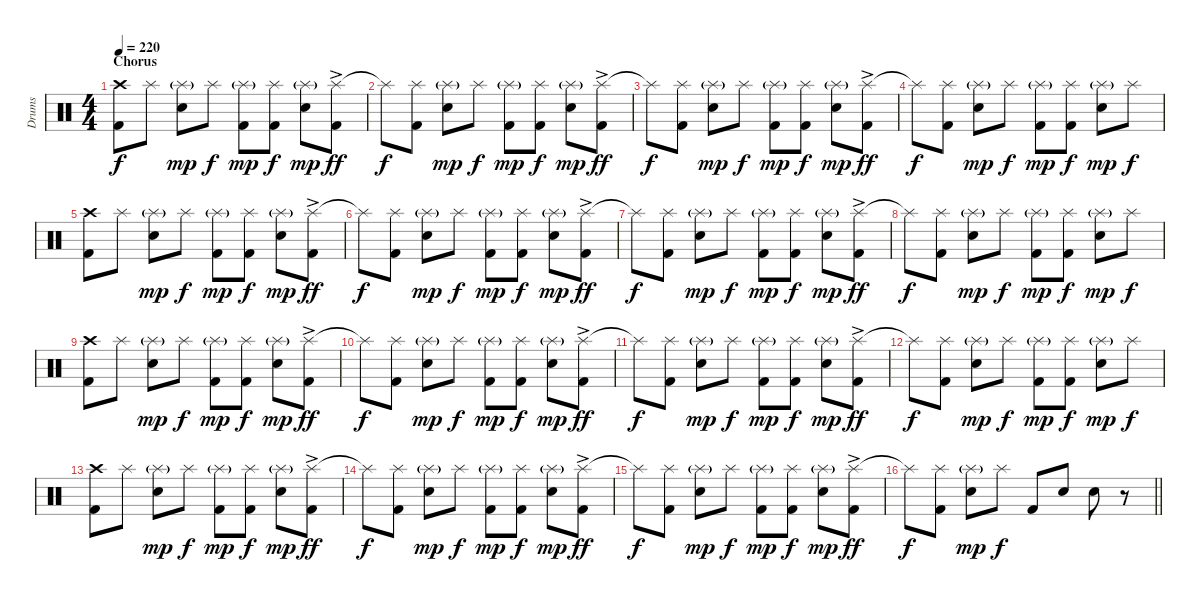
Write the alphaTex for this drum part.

\track ("Drums" "Drums") {instrument percussion}
\staff {score}
\articulation defaults
\ts (4 4)
\section ("" "Chorus")
\tempo 220
\clef neutral
\ks c
("Crash high (hit)" "Kick (hit) 2").8{dy f} "Splash (hit)".8 ("Splash (hit)"{g} "Electric Snare (hit)").8{dy mp} "Splash (hit)".8{dy f} ("Splash (hit)"{g} "Kick (hit) 2").8{dy mp} ("Splash (hit)" "Kick (hit) 2").8{dy f} ("Splash (hit)"{g} "Electric Snare (hit)").8{dy mp} ("Splash (hit)"{ac} "Kick (hit) 2").8{dy ff} |
"Splash (hit)"{t}.8{dy f} ("Splash (hit)" "Kick (hit) 2").8 ("Splash (hit)"{g} "Electric Snare (hit)").8{dy mp} "Splash (hit)".8{dy f} ("Splash (hit)"{g} "Kick (hit) 2").8{dy mp} ("Splash (hit)" "Kick (hit) 2").8{dy f} ("Splash (hit)"{g} "Electric Snare (hit)").8{dy mp} ("Splash (hit)"{ac} "Kick (hit) 2").8{dy ff} |
"Splash (hit)"{t}.8{dy f} ("Splash (hit)" "Kick (hit) 2").8 ("Splash (hit)"{g} "Electric Snare (hit)").8{dy mp} "Splash (hit)".8{dy f} ("Splash (hit)"{g} "Kick (hit) 2").8{dy mp} ("Splash (hit)" "Kick (hit) 2").8{dy f} ("Splash (hit)"{g} "Electric Snare (hit)").8{dy mp} ("Splash (hit)"{ac} "Kick (hit) 2").8{dy ff} |
"Splash (hit)"{t}.8{dy f} ("Splash (hit)" "Kick (hit) 2").8 ("Splash (hit)"{g} "Electric Snare (hit)").8{dy mp} "Splash (hit)".8{dy f} ("Splash (hit)"{g} "Kick (hit) 2").8{dy mp} ("Splash (hit)" "Kick (hit) 2").8{dy f} ("Splash (hit)"{g} "Electric Snare (hit)").8{dy mp} "Splash (hit)".8{dy f} |
("Crash high (hit)" "Kick (hit) 2").8 "Splash (hit)".8 ("Splash (hit)"{g} "Electric Snare (hit)").8{dy mp} "Splash (hit)".8{dy f} ("Splash (hit)"{g} "Kick (hit) 2").8{dy mp} ("Splash (hit)" "Kick (hit) 2").8{dy f} ("Splash (hit)"{g} "Electric Snare (hit)").8{dy mp} ("Splash (hit)"{ac} "Kick (hit) 2").8{dy ff} |
"Splash (hit)"{t}.8{dy f} ("Splash (hit)" "Kick (hit) 2").8 ("Splash (hit)"{g} "Electric Snare (hit)").8{dy mp} "Splash (hit)".8{dy f} ("Splash (hit)"{g} "Kick (hit) 2").8{dy mp} ("Splash (hit)" "Kick (hit) 2").8{dy f} ("Splash (hit)"{g} "Electric Snare (hit)").8{dy mp} ("Splash (hit)"{ac} "Kick (hit) 2").8{dy ff} |
"Splash (hit)"{t}.8{dy f} ("Splash (hit)" "Kick (hit) 2").8 ("Splash (hit)"{g} "Electric Snare (hit)").8{dy mp} "Splash (hit)".8{dy f} ("Splash (hit)"{g} "Kick (hit) 2").8{dy mp} ("Splash (hit)" "Kick (hit) 2").8{dy f} ("Splash (hit)"{g} "Electric Snare (hit)").8{dy mp} ("Splash (hit)"{ac} "Kick (hit) 2").8{dy ff} |
"Splash (hit)"{t}.8{dy f} ("Splash (hit)" "Kick (hit) 2").8 ("Splash (hit)"{g} "Electric Snare (hit)").8{dy mp} "Splash (hit)".8{dy f} ("Splash (hit)"{g} "Kick (hit) 2").8{dy mp} ("Splash (hit)" "Kick (hit) 2").8{dy f} ("Splash (hit)"{g} "Electric Snare (hit)").8{dy mp} "Splash (hit)".8{dy f} |
("Crash high (hit)" "Kick (hit) 2").8 "Splash (hit)".8 ("Splash (hit)"{g} "Electric Snare (hit)").8{dy mp} "Splash (hit)".8{dy f} ("Splash (hit)"{g} "Kick (hit) 2").8{dy mp} ("Splash (hit)" "Kick (hit) 2").8{dy f} ("Splash (hit)"{g} "Electric Snare (hit)").8{dy mp} ("Splash (hit)"{ac} "Kick (hit) 2").8{dy ff} |
"Splash (hit)"{t}.8{dy f} ("Splash (hit)" "Kick (hit) 2").8 ("Splash (hit)"{g} "Electric Snare (hit)").8{dy mp} "Splash (hit)".8{dy f} ("Splash (hit)"{g} "Kick (hit) 2").8{dy mp} ("Splash (hit)" "Kick (hit) 2").8{dy f} ("Splash (hit)"{g} "Electric Snare (hit)").8{dy mp} ("Splash (hit)"{ac} "Kick (hit) 2").8{dy ff} |
"Splash (hit)"{t}.8{dy f} ("Splash (hit)" "Kick (hit) 2").8 ("Splash (hit)"{g} "Electric Snare (hit)").8{dy mp} "Splash (hit)".8{dy f} ("Splash (hit)"{g} "Kick (hit) 2").8{dy mp} ("Splash (hit)" "Kick (hit) 2").8{dy f} ("Splash (hit)"{g} "Electric Snare (hit)").8{dy mp} ("Splash (hit)"{ac} "Kick (hit) 2").8{dy ff} |
"Splash (hit)"{t}.8{dy f} ("Splash (hit)" "Kick (hit) 2").8 ("Splash (hit)"{g} "Electric Snare (hit)").8{dy mp} "Splash (hit)".8{dy f} ("Splash (hit)"{g} "Kick (hit) 2").8{dy mp} ("Splash (hit)" "Kick (hit) 2").8{dy f} ("Splash (hit)"{g} "Electric Snare (hit)").8{dy mp} "Splash (hit)".8{dy f} |
("Crash high (hit)" "Kick (hit) 2").8 "Splash (hit)".8 ("Splash (hit)"{g} "Electric Snare (hit)").8{dy mp} "Splash (hit)".8{dy f} ("Splash (hit)"{g} "Kick (hit) 2").8{dy mp} ("Splash (hit)" "Kick (hit) 2").8{dy f} ("Splash (hit)"{g} "Electric Snare (hit)").8{dy mp} ("Splash (hit)"{ac} "Kick (hit) 2").8{dy ff} |
"Splash (hit)"{t}.8{dy f} ("Splash (hit)" "Kick (hit) 2").8 ("Splash (hit)"{g} "Electric Snare (hit)").8{dy mp} "Splash (hit)".8{dy f} ("Splash (hit)"{g} "Kick (hit) 2").8{dy mp} ("Splash (hit)" "Kick (hit) 2").8{dy f} ("Splash (hit)"{g} "Electric Snare (hit)").8{dy mp} ("Splash (hit)"{ac} "Kick (hit) 2").8{dy ff} |
"Splash (hit)"{t}.8{dy f} ("Splash (hit)" "Kick (hit) 2").8 ("Splash (hit)"{g} "Electric Snare (hit)").8{dy mp} "Splash (hit)".8{dy f} ("Splash (hit)"{g} "Kick (hit) 2").8{dy mp} ("Splash (hit)" "Kick (hit) 2").8{dy f} ("Splash (hit)"{g} "Electric Snare (hit)").8{dy mp} ("Splash (hit)"{ac} "Kick (hit) 2").8{dy ff} |
\barLineRight lightlight "Splash (hit)"{t}.8{dy f}
("Splash (hit)" "Kick (hit) 2").8 ("Splash (hit)"{g} "Electric Snare (hit)").8{dy mp} "Splash (hit)".8{dy f} "Kick (hit) 2".8 "Electric Snare (hit)".8 "Electric Snare (hit)".8 r.8
